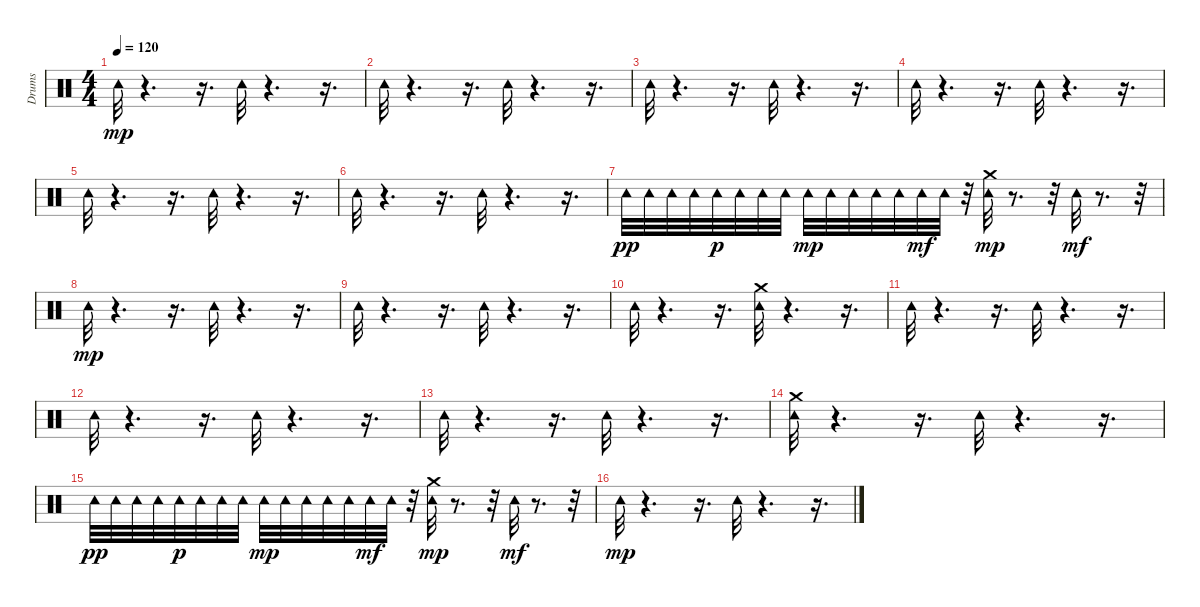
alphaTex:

\track ("Drums" "Drums") {instrument percussion}
\staff {score}
\articulation defaults
\ts (4 4)
\tempo 120
\clef neutral
\ks c "Tambourine (hit)".32{dy mp}
r.4{d} r.16{d} "Tambourine (hit)".32 r.4{d} r.16{d} |
"Tambourine (hit)".32 r.4{d} r.16{d} "Tambourine (hit)".32 r.4{d} r.16{d} |
"Tambourine (hit)".32 r.4{d} r.16{d} "Tambourine (hit)".32 r.4{d} r.16{d} |
"Tambourine (hit)".32 r.4{d} r.16{d} "Tambourine (hit)".32 r.4{d} r.16{d} |
"Tambourine (hit)".32 r.4{d} r.16{d} "Tambourine (hit)".32 r.4{d} r.16{d} |
"Tambourine (hit)".32 r.4{d} r.16{d} "Tambourine (hit)".32 r.4{d} r.16{d} |
"Tambourine (hit)".32{dy pp} "Tambourine (hit)".32 "Tambourine (hit)".32 "Tambourine (hit)".32 "Tambourine (hit)".32{dy p} "Tambourine (hit)".32 "Tambourine (hit)".32 "Tambourine (hit)".32 "Tambourine (hit)".32{dy mp} "Tambourine (hit)".32 "Tambourine (hit)".32 "Tambourine (hit)".32 "Tambourine (hit)".32 "Tambourine (hit)".32{dy mf} "Tambourine (hit)".32 r.32 ("Crash medium (hit)" "Tambourine (hit)").32{dy mp} r.8{d} r.32 "Tambourine (hit)".32{dy mf} r.8{d} r.32 |
"Tambourine (hit)".32{dy mp} r.4{d} r.16{d} "Tambourine (hit)".32 r.4{d} r.16{d} |
"Tambourine (hit)".32 r.4{d} r.16{d} "Tambourine (hit)".32 r.4{d} r.16{d} |
"Tambourine (hit)".32 r.4{d} r.16{d} ("Tambourine (hit)" "Crash medium (hit)").32 r.4{d} r.16{d} |
"Tambourine (hit)".32 r.4{d} r.16{d} "Tambourine (hit)".32 r.4{d} r.16{d} |
"Tambourine (hit)".32 r.4{d} r.16{d} "Tambourine (hit)".32 r.4{d} r.16{d} |
"Tambourine (hit)".32 r.4{d} r.16{d} "Tambourine (hit)".32 r.4{d} r.16{d} |
("Crash medium (hit)" "Tambourine (hit)").32 r.4{d} r.16{d} "Tambourine (hit)".32 r.4{d} r.16{d} |
"Tambourine (hit)".32{dy pp} "Tambourine (hit)".32 "Tambourine (hit)".32 "Tambourine (hit)".32 "Tambourine (hit)".32{dy p} "Tambourine (hit)".32 "Tambourine (hit)".32 "Tambourine (hit)".32 "Tambourine (hit)".32{dy mp} "Tambourine (hit)".32 "Tambourine (hit)".32 "Tambourine (hit)".32 "Tambourine (hit)".32 "Tambourine (hit)".32{dy mf} "Tambourine (hit)".32 r.32 ("Crash medium (hit)" "Tambourine (hit)").32{dy mp} r.8{d} r.32 "Tambourine (hit)".32{dy mf} r.8{d} r.32 |
"Tambourine (hit)".32{dy mp} r.4{d} r.16{d} "Tambourine (hit)".32 r.4{d} r.16{d}
